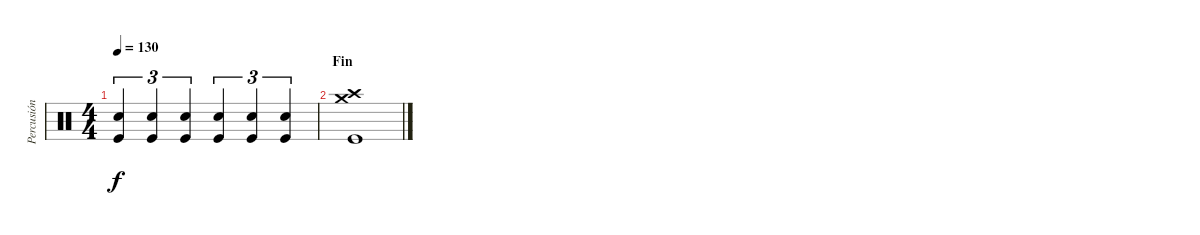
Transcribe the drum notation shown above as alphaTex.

\track ("Percusión" "Percusión") {instrument percussion}
\staff {score}
\articulation defaults
\ts (4 4)
\tempo 130
\clef neutral
\ks c
("Electric Snare (hit)" "Kick (hit)").4{tu (3 2) dy f} ("Electric Snare (hit)" "Kick (hit)").4{tu (3 2)} ("Electric Snare (hit)" "Kick (hit)").4{tu (3 2)} ("Electric Snare (hit)" "Kick (hit)").4{tu (3 2)} ("Electric Snare (hit)" "Kick (hit)").4{tu (3 2)} ("Electric Snare (hit)" "Kick (hit)").4{tu (3 2)} |
\section ("" "Fin")
("Crash high (hit)" "Crash medium (hit)" "Kick (hit)").1
